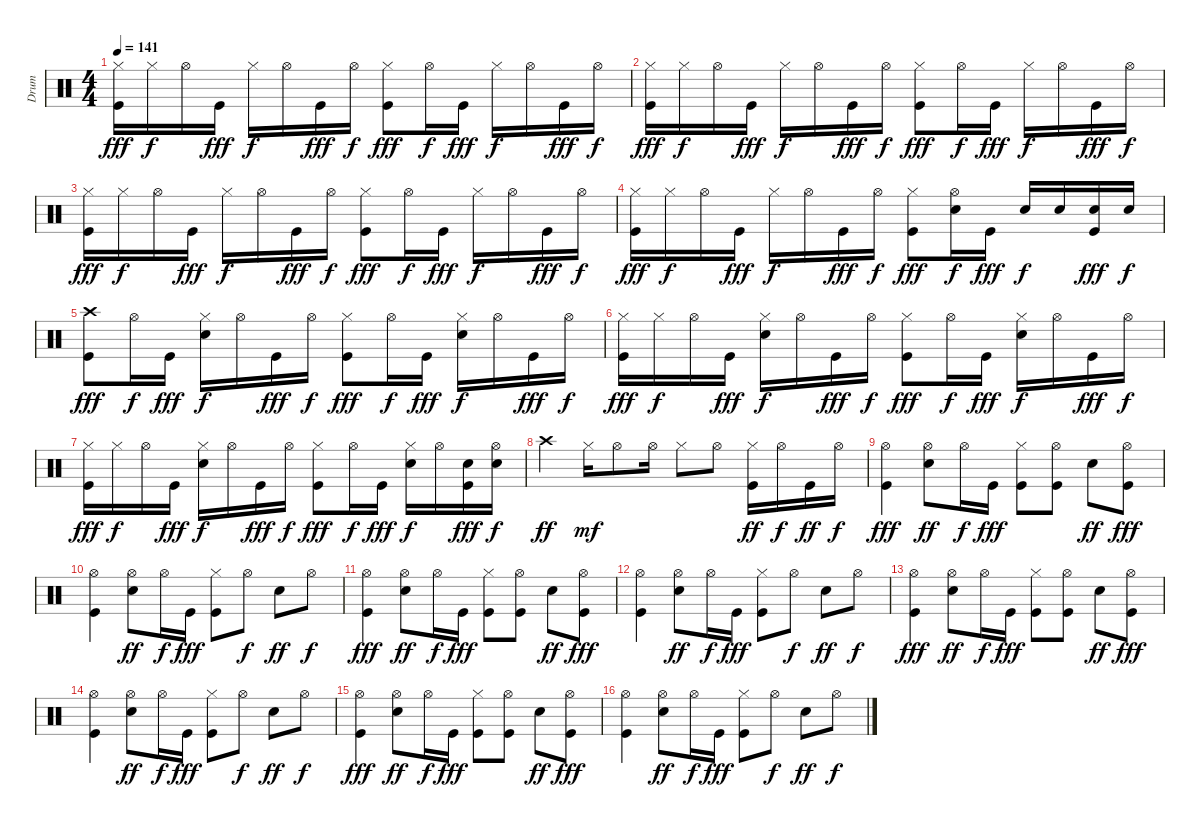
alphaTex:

\track ("Drum" "Drum") {instrument percussion}
\staff {score}
\articulation defaults
\ts (4 4)
\tempo 141
\clef neutral
\ks c
("Hi-Hat (closed)" "Kick (hit)").16{dy fff} "Hi-Hat (closed)".16{dy f} "Hi-Hat (open)".16 "Kick (hit)".16{dy fff} "Hi-Hat (closed)".16{dy f} "Hi-Hat (open)".16 "Kick (hit)".16{dy fff} "Hi-Hat (open)".16{dy f} ("Hi-Hat (closed)" "Kick (hit)").8{dy fff} "Hi-Hat (open)".16{dy f} "Kick (hit)".16{dy fff} "Hi-Hat (closed)".16{dy f} "Hi-Hat (open)".16 "Kick (hit)".16{dy fff} "Hi-Hat (open)".16{dy f} |
("Hi-Hat (closed)" "Kick (hit)").16{dy fff} "Hi-Hat (closed)".16{dy f} "Hi-Hat (open)".16 "Kick (hit)".16{dy fff} "Hi-Hat (closed)".16{dy f} "Hi-Hat (open)".16 "Kick (hit)".16{dy fff} "Hi-Hat (open)".16{dy f} ("Hi-Hat (closed)" "Kick (hit)").8{dy fff} "Hi-Hat (open)".16{dy f} "Kick (hit)".16{dy fff} "Hi-Hat (closed)".16{dy f} "Hi-Hat (open)".16 "Kick (hit)".16{dy fff} "Hi-Hat (open)".16{dy f} |
("Hi-Hat (closed)" "Kick (hit)").16{dy fff} "Hi-Hat (closed)".16{dy f} "Hi-Hat (open)".16 "Kick (hit)".16{dy fff} "Hi-Hat (closed)".16{dy f} "Hi-Hat (open)".16 "Kick (hit)".16{dy fff} "Hi-Hat (open)".16{dy f} ("Hi-Hat (closed)" "Kick (hit)").8{dy fff} "Hi-Hat (open)".16{dy f} "Kick (hit)".16{dy fff} "Hi-Hat (closed)".16{dy f} "Hi-Hat (open)".16 "Kick (hit)".16{dy fff} "Hi-Hat (open)".16{dy f} |
("Hi-Hat (closed)" "Kick (hit)").16{dy fff} "Hi-Hat (closed)".16{dy f} "Hi-Hat (open)".16 "Kick (hit)".16{dy fff} "Hi-Hat (closed)".16{dy f} "Hi-Hat (open)".16 "Kick (hit)".16{dy fff} "Hi-Hat (open)".16{dy f} ("Hi-Hat (closed)" "Kick (hit)").8{dy fff} ("Hi-Hat (open)" "Electric Snare (hit)").16{dy f} "Kick (hit)".16{dy fff} "Electric Snare (hit)".16{dy f} "Electric Snare (hit)".16 ("Electric Snare (hit)" "Kick (hit)").16{dy fff} "Electric Snare (hit)".16{dy f} |
("Crash high (hit)" "Kick (hit)").8{dy fff} "Hi-Hat (open)".16{dy f} "Kick (hit)".16{dy fff} ("Hi-Hat (closed)" "Electric Snare (hit)").16{dy f} "Hi-Hat (open)".16 "Kick (hit)".16{dy fff} "Hi-Hat (open)".16{dy f} ("Hi-Hat (closed)" "Kick (hit)").8{dy fff} "Hi-Hat (open)".16{dy f} "Kick (hit)".16{dy fff} ("Hi-Hat (closed)" "Electric Snare (hit)").16{dy f} "Hi-Hat (open)".16 "Kick (hit)".16{dy fff} "Hi-Hat (open)".16{dy f} |
("Hi-Hat (closed)" "Kick (hit)").16{dy fff} "Hi-Hat (closed)".16{dy f} "Hi-Hat (open)".16 "Kick (hit)".16{dy fff} ("Hi-Hat (closed)" "Electric Snare (hit)").16{dy f} "Hi-Hat (open)".16 "Kick (hit)".16{dy fff} "Hi-Hat (open)".16{dy f} ("Hi-Hat (closed)" "Kick (hit)").8{dy fff} "Hi-Hat (open)".16{dy f} "Kick (hit)".16{dy fff} ("Hi-Hat (closed)" "Electric Snare (hit)").16{dy f} "Hi-Hat (open)".16 "Kick (hit)".16{dy fff} "Hi-Hat (open)".16{dy f} |
("Hi-Hat (closed)" "Kick (hit)").16{dy fff} "Hi-Hat (closed)".16{dy f} "Hi-Hat (open)".16 "Kick (hit)".16{dy fff} ("Hi-Hat (closed)" "Electric Snare (hit)").16{dy f} "Hi-Hat (open)".16 "Kick (hit)".16{dy fff} "Hi-Hat (open)".16{dy f} ("Hi-Hat (closed)" "Kick (hit)").8{dy fff} "Hi-Hat (open)".16{dy f} "Kick (hit)".16{dy fff} ("Hi-Hat (closed)" "Electric Snare (hit)").16{dy f} "Hi-Hat (open)".16 ("Electric Snare (hit)" "Kick (hit)").16{dy fff} ("Hi-Hat (open)" "Electric Snare (hit)").16{dy f} |
"Crash high (hit)".4{dy ff} "Hi-Hat (closed)".16{dy mf} "Hi-Hat (open)".8 "Hi-Hat (open)".16 "Hi-Hat (closed)".8 "Hi-Hat (open)".8 ("Hi-Hat (closed)" "Kick (hit)").16{dy ff} "Hi-Hat (open)".16{dy f} "Kick (hit)".16{dy ff} "Hi-Hat (open)".16{dy f} |
("Hi-Hat (open)" "Kick (hit)").4{dy fff} ("Hi-Hat (open)" "Electric Snare (hit)").8{dy ff} "Hi-Hat (open)".16{dy f} "Kick (hit)".16{dy fff} ("Hi-Hat (closed)" "Kick (hit)").8 ("Hi-Hat (open)" "Kick (hit)").8 "Electric Snare (hit)".8{dy ff} ("Hi-Hat (open)" "Kick (hit)").8{dy fff} |
("Hi-Hat (open)" "Kick (hit)").4 ("Hi-Hat (open)" "Electric Snare (hit)").8{dy ff} "Hi-Hat (open)".16{dy f} "Kick (hit)".16{dy fff} ("Hi-Hat (closed)" "Kick (hit)").8 "Hi-Hat (open)".8{dy f} "Electric Snare (hit)".8{dy ff} "Hi-Hat (open)".8{dy f} |
("Hi-Hat (open)" "Kick (hit)").4{dy fff} ("Hi-Hat (open)" "Electric Snare (hit)").8{dy ff} "Hi-Hat (open)".16{dy f} "Kick (hit)".16{dy fff} ("Hi-Hat (closed)" "Kick (hit)").8 ("Hi-Hat (open)" "Kick (hit)").8 "Electric Snare (hit)".8{dy ff} ("Hi-Hat (open)" "Kick (hit)").8{dy fff} |
("Hi-Hat (open)" "Kick (hit)").4 ("Hi-Hat (open)" "Electric Snare (hit)").8{dy ff} "Hi-Hat (open)".16{dy f} "Kick (hit)".16{dy fff} ("Hi-Hat (closed)" "Kick (hit)").8 "Hi-Hat (open)".8{dy f} "Electric Snare (hit)".8{dy ff} "Hi-Hat (open)".8{dy f} |
("Hi-Hat (open)" "Kick (hit)").4{dy fff} ("Hi-Hat (open)" "Electric Snare (hit)").8{dy ff} "Hi-Hat (open)".16{dy f} "Kick (hit)".16{dy fff} ("Hi-Hat (closed)" "Kick (hit)").8 ("Hi-Hat (open)" "Kick (hit)").8 "Electric Snare (hit)".8{dy ff} ("Hi-Hat (open)" "Kick (hit)").8{dy fff} |
("Hi-Hat (open)" "Kick (hit)").4 ("Hi-Hat (open)" "Electric Snare (hit)").8{dy ff} "Hi-Hat (open)".16{dy f} "Kick (hit)".16{dy fff} ("Hi-Hat (closed)" "Kick (hit)").8 "Hi-Hat (open)".8{dy f} "Electric Snare (hit)".8{dy ff} "Hi-Hat (open)".8{dy f} |
("Hi-Hat (open)" "Kick (hit)").4{dy fff} ("Hi-Hat (open)" "Electric Snare (hit)").8{dy ff} "Hi-Hat (open)".16{dy f} "Kick (hit)".16{dy fff} ("Hi-Hat (closed)" "Kick (hit)").8 ("Hi-Hat (open)" "Kick (hit)").8 "Electric Snare (hit)".8{dy ff} ("Hi-Hat (open)" "Kick (hit)").8{dy fff} |
("Hi-Hat (open)" "Kick (hit)").4 ("Hi-Hat (open)" "Electric Snare (hit)").8{dy ff} "Hi-Hat (open)".16{dy f} "Kick (hit)".16{dy fff} ("Hi-Hat (closed)" "Kick (hit)").8 "Hi-Hat (open)".8{dy f} "Electric Snare (hit)".8{dy ff} "Hi-Hat (open)".8{dy f}
